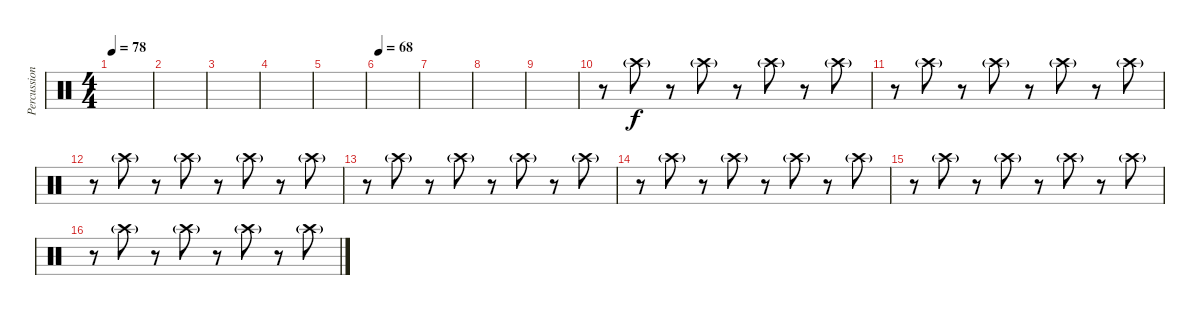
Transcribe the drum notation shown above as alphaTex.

\track ("Percussions" "Percussion") {instrument percussion}
\staff {score}
\articulation defaults
\ts (4 4)
\tempo 78
\clef neutral
\ks c
|
|
|
|
|
\tempo 68
|
|
|
|
r.8 "Crash high (hit)"{g}.8 r.8 "Crash high (hit)"{g}.8 r.8 "Crash high (hit)"{g}.8 r.8 "Crash high (hit)"{g}.8 |
r.8 "Crash high (hit)"{g}.8 r.8 "Crash high (hit)"{g}.8 r.8 "Crash high (hit)"{g}.8 r.8 "Crash high (hit)"{g}.8 |
r.8 "Crash high (hit)"{g}.8 r.8 "Crash high (hit)"{g}.8 r.8 "Crash high (hit)"{g}.8 r.8 "Crash high (hit)"{g}.8 |
r.8 "Crash high (hit)"{g}.8 r.8 "Crash high (hit)"{g}.8 r.8 "Crash high (hit)"{g}.8 r.8 "Crash high (hit)"{g}.8 |
r.8 "Crash high (hit)"{g}.8 r.8 "Crash high (hit)"{g}.8 r.8 "Crash high (hit)"{g}.8 r.8 "Crash high (hit)"{g}.8 |
r.8 "Crash high (hit)"{g}.8 r.8 "Crash high (hit)"{g}.8 r.8 "Crash high (hit)"{g}.8 r.8 "Crash high (hit)"{g}.8 |
r.8 "Crash high (hit)"{g}.8 r.8 "Crash high (hit)"{g}.8 r.8 "Crash high (hit)"{g}.8 r.8 "Crash high (hit)"{g}.8
